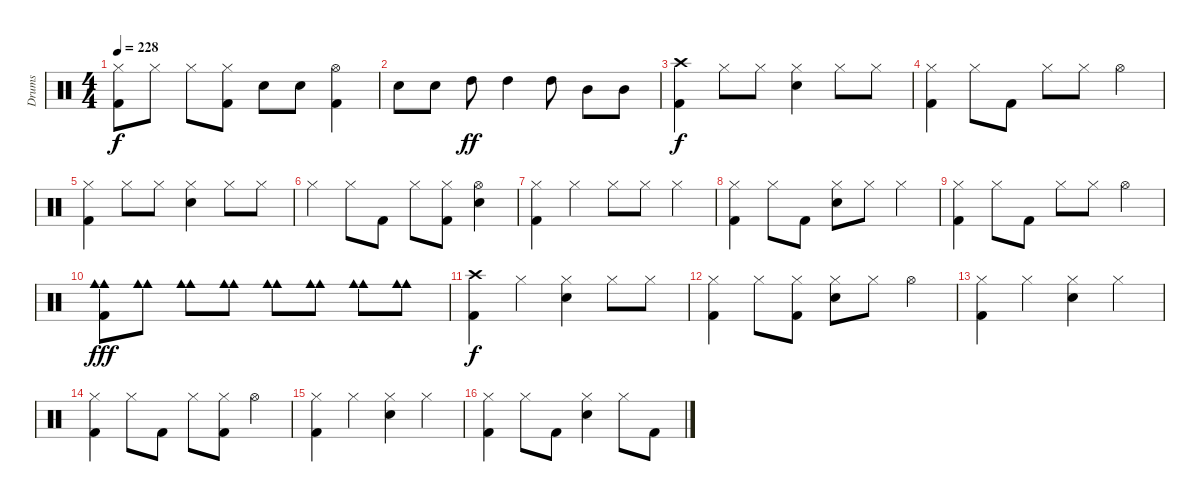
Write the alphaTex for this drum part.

\track ("Drums" "Drums") {instrument percussion}
\staff {score}
\articulation defaults
\ts (4 4)
\tempo 228
\clef neutral
\ks c
("Hi-Hat (closed)" "Kick (hit) 2").8{dy f} "Hi-Hat (closed)".8 "Hi-Hat (closed)".8 ("Hi-Hat (closed)" "Kick (hit) 2").8 "Electric Snare (hit)".8 "Electric Snare (hit)".8 ("Hi-Hat (open)" "Kick (hit) 2").4 |
"Electric Snare (hit)".8 "Electric Snare (hit)".8 "High Tom (hit)".8{dy ff} "High Tom (hit)".4 "High Tom (hit)".8 "Mid Tom (hit)".8 "Mid Tom (hit)".8 |
("Crash high (hit)" "Kick (hit) 2").4{dy f} "Hi-Hat (closed)".8 "Hi-Hat (closed)".8 ("Hi-Hat (closed)" "Electric Snare (hit)").4 "Hi-Hat (closed)".8 "Hi-Hat (closed)".8 |
("Hi-Hat (closed)" "Kick (hit) 2").4 "Hi-Hat (closed)".8 "Kick (hit) 2".8 "Hi-Hat (closed)".8 "Hi-Hat (closed)".8 "Hi-Hat (open)".4 |
("Hi-Hat (closed)" "Kick (hit) 2").4 "Hi-Hat (closed)".8 "Hi-Hat (closed)".8 ("Hi-Hat (closed)" "Electric Snare (hit)").4 "Hi-Hat (closed)".8 "Hi-Hat (closed)".8 |
"Hi-Hat (closed)".4 "Hi-Hat (closed)".8 "Kick (hit) 2".8 "Hi-Hat (closed)".8 ("Hi-Hat (closed)" "Kick (hit) 2").8 ("Hi-Hat (open)" "Electric Snare (hit)").4 |
("Hi-Hat (closed)" "Kick (hit) 2").4 "Hi-Hat (closed)".4 "Hi-Hat (closed)".8 "Hi-Hat (closed)".8 "Hi-Hat (closed)".4 |
("Hi-Hat (closed)" "Kick (hit) 2").4 "Hi-Hat (closed)".8 "Kick (hit) 2".8 ("Hi-Hat (closed)" "Electric Snare (hit)").8 "Hi-Hat (closed)".8 "Hi-Hat (closed)".4 |
("Hi-Hat (closed)" "Kick (hit) 2").4 "Hi-Hat (closed)".8 "Kick (hit) 2".8 "Hi-Hat (closed)".8 "Hi-Hat (closed)".8 "Hi-Hat (open)".4 |
("Cowbell medium (hit)" "Cowbell medium (hit)" "Kick (hit) 2").8{dy fff} ("Cowbell medium (hit)" "Cowbell medium (hit)").8 ("Cowbell medium (hit)" "Cowbell medium (hit)").8 ("Cowbell medium (hit)" "Cowbell medium (hit)").8 ("Cowbell medium (hit)" "Cowbell medium (hit)").8 ("Cowbell medium (hit)" "Cowbell medium (hit)").8 ("Cowbell medium (hit)" "Cowbell medium (hit)").8 ("Cowbell medium (hit)" "Cowbell medium (hit)").8 |
("Crash high (hit)" "Kick (hit) 2").4{dy f} "Hi-Hat (closed)".4 ("Hi-Hat (closed)" "Electric Snare (hit)").4 "Hi-Hat (closed)".8 "Hi-Hat (closed)".8 |
("Hi-Hat (closed)" "Kick (hit) 2").4 "Hi-Hat (closed)".8 ("Hi-Hat (closed)" "Kick (hit) 2").8 ("Hi-Hat (closed)" "Electric Snare (hit)").8 "Hi-Hat (closed)".8 "Hi-Hat (open)".4 |
("Hi-Hat (closed)" "Kick (hit) 2").4 "Hi-Hat (closed)".4 ("Hi-Hat (closed)" "Electric Snare (hit)").4 "Hi-Hat (closed)".4 |
("Hi-Hat (closed)" "Kick (hit) 2").4 "Hi-Hat (closed)".8 "Kick (hit) 2".8 "Hi-Hat (closed)".8 ("Hi-Hat (closed)" "Kick (hit) 2").8 "Hi-Hat (open)".4 |
("Hi-Hat (closed)" "Kick (hit) 2").4 "Hi-Hat (closed)".4 ("Hi-Hat (closed)" "Electric Snare (hit)").4 "Hi-Hat (closed)".4 |
("Hi-Hat (closed)" "Kick (hit) 2").4 "Hi-Hat (closed)".8 "Kick (hit) 2".8 ("Hi-Hat (closed)" "Electric Snare (hit)").4 "Hi-Hat (closed)".8 "Kick (hit) 2".8
